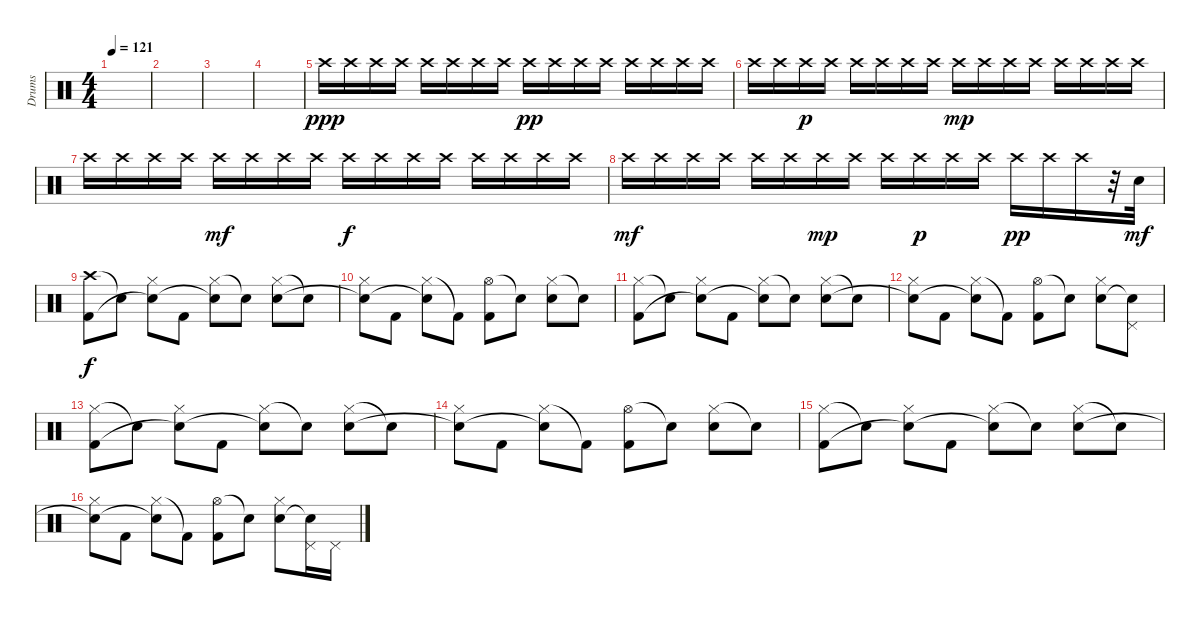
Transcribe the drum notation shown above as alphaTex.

\track ("Drums" "Drums") {instrument percussion}
\staff {score}
\articulation defaults
\ts (4 4)
\tempo 121
\clef neutral
\ks c
|
|
|
|
"Crash high (hit)".16{dy ppp} "Crash high (hit)".16 "Crash high (hit)".16 "Crash high (hit)".16 "Crash high (hit)".16 "Crash high (hit)".16 "Crash high (hit)".16 "Crash high (hit)".16 "Crash high (hit)".16{dy pp} "Crash high (hit)".16 "Crash high (hit)".16 "Crash high (hit)".16 "Crash high (hit)".16 "Crash high (hit)".16 "Crash high (hit)".16 "Crash high (hit)".16 |
"Crash high (hit)".16 "Crash high (hit)".16 "Crash high (hit)".16{dy p} "Crash high (hit)".16 "Crash high (hit)".16 "Crash high (hit)".16 "Crash high (hit)".16 "Crash high (hit)".16 "Crash high (hit)".16{dy mp} "Crash high (hit)".16 "Crash high (hit)".16 "Crash high (hit)".16 "Crash high (hit)".16 "Crash high (hit)".16 "Crash high (hit)".16 "Crash high (hit)".16 |
"Crash high (hit)".16 "Crash high (hit)".16 "Crash high (hit)".16 "Crash high (hit)".16 "Crash high (hit)".16{dy mf} "Crash high (hit)".16 "Crash high (hit)".16 "Crash high (hit)".16 "Crash high (hit)".16{dy f} "Crash high (hit)".16 "Crash high (hit)".16 "Crash high (hit)".16 "Crash high (hit)".16 "Crash high (hit)".16 "Crash high (hit)".16 "Crash high (hit)".16 |
"Crash high (hit)".16{dy mf} "Crash high (hit)".16 "Crash high (hit)".16 "Crash high (hit)".16 "Crash high (hit)".16 "Crash high (hit)".16 "Crash high (hit)".16{dy mp} "Crash high (hit)".16 "Crash high (hit)".16 "Crash high (hit)".16{dy p} "Crash high (hit)".16 "Crash high (hit)".16 "Crash high (hit)".16{dy pp} "Crash high (hit)".16 "Crash high (hit)".16 r.32 "Electric Snare (hit)".32{dy mf} |
("Crash high (hit)" "Kick (hit) 2").8{dy f} "Snare (hit)"{t}.8 ("Hi-Hat (closed)" "Snare (hit)"{t}).8 "Kick (hit) 2".8 ("Hi-Hat (closed)" "Snare (hit)"{t}).8 "Snare (hit)"{t}.8 ("Hi-Hat (closed)" "Electric Snare (hit)").8 "Snare (hit)"{t}.8 |
("Hi-Hat (closed)" "Snare (hit)"{t}).8 "Kick (hit) 2".8 ("Hi-Hat (closed)" "Snare (hit)"{t}).8 "Kick (hit) 2"{t}.8 ("Hi-Hat (open)" "Kick (hit) 2").8 "Snare (hit)"{t}.8 ("Hi-Hat (closed)" "Electric Snare (hit)").8 "Snare (hit)"{t}.8 |
("Hi-Hat (closed)" "Kick (hit) 2").8 "Snare (hit)"{t}.8 ("Hi-Hat (closed)" "Snare (hit)"{t}).8 "Kick (hit) 2".8 ("Hi-Hat (closed)" "Snare (hit)"{t}).8 "Snare (hit)"{t}.8 ("Hi-Hat (closed)" "Electric Snare (hit)").8 "Snare (hit)"{t}.8 |
("Hi-Hat (closed)" "Snare (hit)"{t}).8 "Kick (hit) 2".8 ("Hi-Hat (closed)" "Snare (hit)"{t}).8 "Kick (hit) 2"{t}.8 ("Hi-Hat (open)" "Kick (hit) 2").8 "Snare (hit)"{t}.8 ("Hi-Hat (closed)" "Electric Snare (hit)").8 ("Pedal Hi-Hat (hit)" "Snare (hit)"{t}).8 |
("Hi-Hat (closed)" "Kick (hit) 2").8 "Snare (hit)"{t}.8 ("Hi-Hat (closed)" "Snare (hit)"{t}).8 "Kick (hit) 2".8 ("Hi-Hat (closed)" "Snare (hit)"{t}).8 "Snare (hit)"{t}.8 ("Hi-Hat (closed)" "Electric Snare (hit)").8 "Snare (hit)"{t}.8 |
("Hi-Hat (closed)" "Snare (hit)"{t}).8 "Kick (hit) 2".8 ("Hi-Hat (closed)" "Snare (hit)"{t}).8 "Kick (hit) 2"{t}.8 ("Hi-Hat (open)" "Kick (hit) 2").8 "Snare (hit)"{t}.8 ("Hi-Hat (closed)" "Electric Snare (hit)").8 "Snare (hit)"{t}.8 |
("Hi-Hat (closed)" "Kick (hit) 2").8 "Snare (hit)"{t}.8 ("Hi-Hat (closed)" "Snare (hit)"{t}).8 "Kick (hit) 2".8 ("Hi-Hat (closed)" "Snare (hit)"{t}).8 "Snare (hit)"{t}.8 ("Hi-Hat (closed)" "Electric Snare (hit)").8 "Snare (hit)"{t}.8 |
("Hi-Hat (closed)" "Snare (hit)"{t}).8 "Kick (hit) 2".8 ("Hi-Hat (closed)" "Snare (hit)"{t}).8 "Kick (hit) 2"{t}.8 ("Hi-Hat (open)" "Kick (hit) 2").8 "Snare (hit)"{t}.8 ("Hi-Hat (closed)" "Electric Snare (hit)").8 ("Pedal Hi-Hat (hit)" "Snare (hit)"{t}).16 "Pedal Hi-Hat (hit)".16
